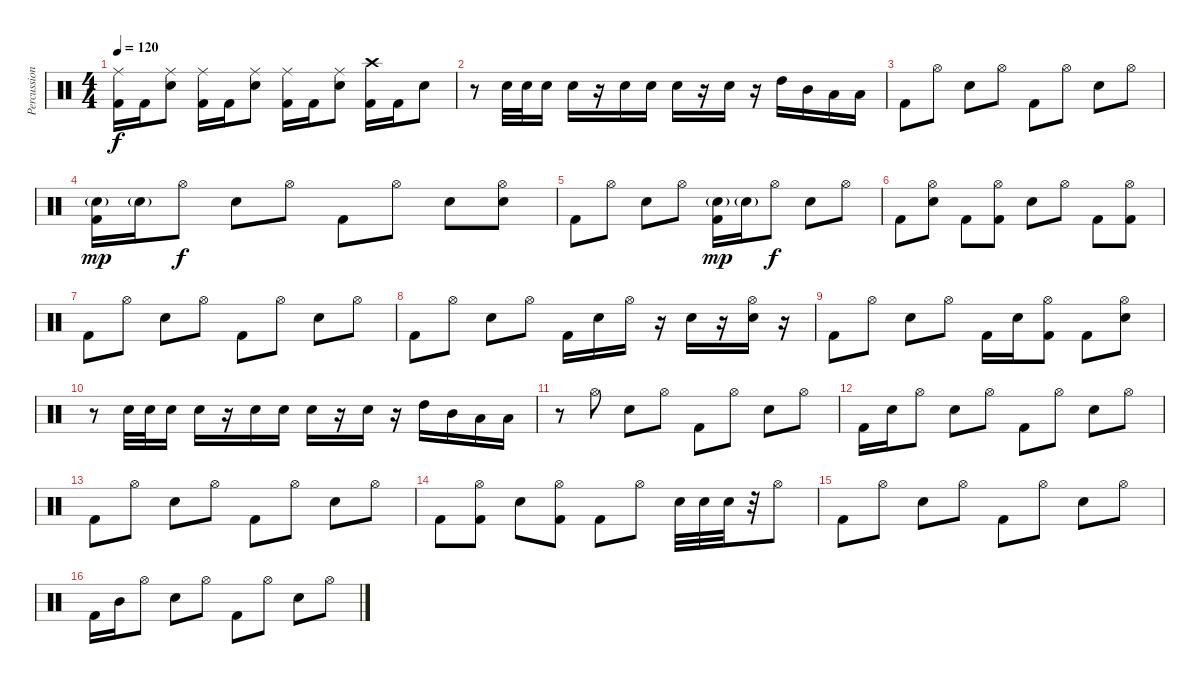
\track ("Percussion" "Percussion") {instrument percussion}
\staff {score}
\articulation defaults
\ts (4 4)
\tempo 120
\clef neutral
\ks c
("Ride (middle)" "Kick (hit) 2").16{dy f} "Kick (hit) 2".16 ("Ride (middle)" "Electric Snare (hit)").8 ("Ride (middle)" "Kick (hit) 2").16 "Kick (hit) 2".16 ("Ride (middle)" "Electric Snare (hit)").8 ("Ride (middle)" "Kick (hit) 2").16 "Kick (hit) 2".16 ("Ride (middle)" "Electric Snare (hit)").8 ("Crash high (hit)" "Kick (hit) 2").16 "Kick (hit) 2".16 "Electric Snare (hit)".8 |
r.8 "Electric Snare (hit)".32 "Electric Snare (hit)".32 "Electric Snare (hit)".16 "Electric Snare (hit)".16 r.16 "Electric Snare (hit)".16 "Electric Snare (hit)".16 "Electric Snare (hit)".16 r.16 "Electric Snare (hit)".16 r.16 "High Tom (hit)".16 "Mid Tom (hit)".16 "Low Tom (hit)".16 "Low Tom (hit)".16 |
"Kick (hit) 2".8 "Hi-Hat (open)".8 "Electric Snare (hit)".8 "Hi-Hat (open)".8 "Kick (hit) 2".8 "Hi-Hat (open)".8 "Electric Snare (hit)".8 "Hi-Hat (open)".8 |
("Electric Snare (hit)"{g} "Kick (hit) 2").16{dy mp} "Electric Snare (hit)"{g}.16 "Hi-Hat (open)".8{dy f} "Electric Snare (hit)".8 "Hi-Hat (open)".8 "Kick (hit) 2".8 "Hi-Hat (open)".8 "Electric Snare (hit)".8 ("Hi-Hat (open)" "Electric Snare (hit)").8 |
"Kick (hit) 2".8 "Hi-Hat (open)".8 "Electric Snare (hit)".8 "Hi-Hat (open)".8 ("Electric Snare (hit)"{g} "Kick (hit) 2").16{dy mp} "Electric Snare (hit)"{g}.16 "Hi-Hat (open)".8{dy f} "Electric Snare (hit)".8 "Hi-Hat (open)".8 |
"Kick (hit) 2".8 ("Hi-Hat (open)" "Electric Snare (hit)").8 "Kick (hit) 2".8 ("Hi-Hat (open)" "Kick (hit) 2").8 "Electric Snare (hit)".8 "Hi-Hat (open)".8 "Kick (hit) 2".8 ("Hi-Hat (open)" "Kick (hit) 2").8 |
"Kick (hit) 2".8 "Hi-Hat (open)".8 "Electric Snare (hit)".8 "Hi-Hat (open)".8 "Kick (hit) 2".8 "Hi-Hat (open)".8 "Electric Snare (hit)".8 "Hi-Hat (open)".8 |
"Kick (hit) 2".8 "Hi-Hat (open)".8 "Electric Snare (hit)".8 "Hi-Hat (open)".8 "Kick (hit) 2".16 "Electric Snare (hit)".16 "Hi-Hat (open)".16 r.16 "Electric Snare (hit)".16 r.16 ("Hi-Hat (open)" "Electric Snare (hit)").16 r.16 |
"Kick (hit) 2".8 "Hi-Hat (open)".8 "Electric Snare (hit)".8 "Hi-Hat (open)".8 "Kick (hit) 2".16 "Electric Snare (hit)".16 ("Hi-Hat (open)" "Kick (hit) 2").8 "Kick (hit) 2".8 ("Hi-Hat (open)" "Electric Snare (hit)").8 |
r.8 "Electric Snare (hit)".32 "Electric Snare (hit)".32 "Electric Snare (hit)".16 "Electric Snare (hit)".16 r.16 "Electric Snare (hit)".16 "Electric Snare (hit)".16 "Electric Snare (hit)".16 r.16 "Electric Snare (hit)".16 r.16 "High Tom (hit)".16 "Mid Tom (hit)".16 "Low Tom (hit)".16 "Low Tom (hit)".16 |
r.8 "Hi-Hat (open)".8 "Electric Snare (hit)".8 "Hi-Hat (open)".8 "Kick (hit) 2".8 "Hi-Hat (open)".8 "Electric Snare (hit)".8 "Hi-Hat (open)".8 |
"Kick (hit) 2".16 "Electric Snare (hit)".16 "Hi-Hat (open)".8 "Electric Snare (hit)".8 "Hi-Hat (open)".8 "Kick (hit) 2".8 "Hi-Hat (open)".8 "Electric Snare (hit)".8 "Hi-Hat (open)".8 |
"Kick (hit) 2".8 "Hi-Hat (open)".8 "Electric Snare (hit)".8 "Hi-Hat (open)".8 "Kick (hit) 2".8 "Hi-Hat (open)".8 "Electric Snare (hit)".8 "Hi-Hat (open)".8 |
"Kick (hit) 2".8 ("Hi-Hat (open)" "Kick (hit) 2").8 "Electric Snare (hit)".8 ("Hi-Hat (open)" "Kick (hit) 2").8 "Kick (hit) 2".8 "Hi-Hat (open)".8 "Electric Snare (hit)".32 "Electric Snare (hit)".32 "Electric Snare (hit)".32 r.32 "Hi-Hat (open)".8 |
"Kick (hit) 2".8 "Hi-Hat (open)".8 "Electric Snare (hit)".8 "Hi-Hat (open)".8 "Kick (hit) 2".8 "Hi-Hat (open)".8 "Electric Snare (hit)".8 "Hi-Hat (open)".8 |
"Kick (hit) 2".16 "Mid Tom (hit)".16 "Hi-Hat (open)".8 "Electric Snare (hit)".8 "Hi-Hat (open)".8 "Kick (hit) 2".8 "Hi-Hat (open)".8 "Electric Snare (hit)".8 "Hi-Hat (open)".8
